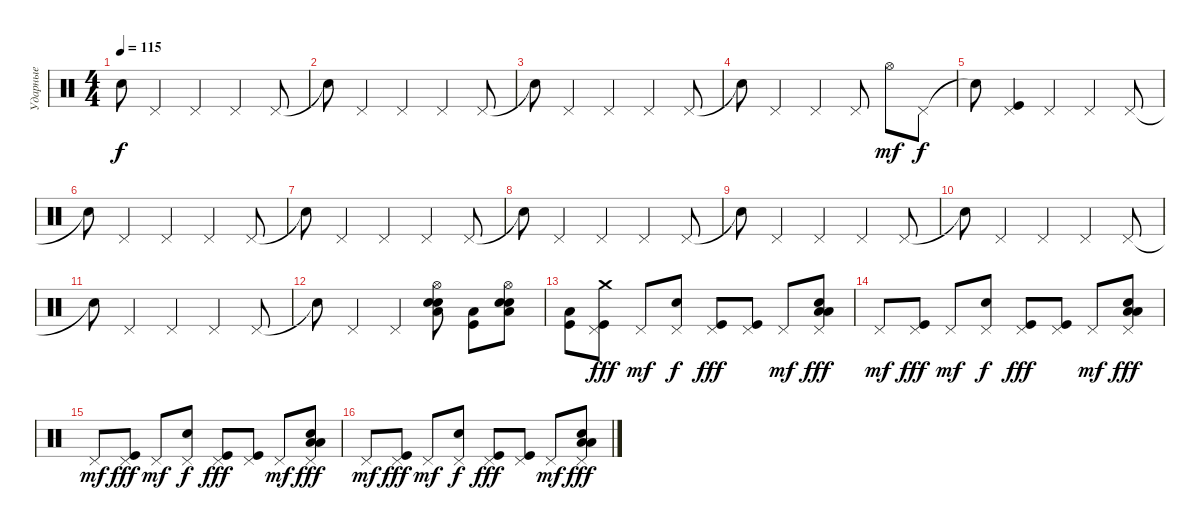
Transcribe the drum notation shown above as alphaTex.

\track ("Ударные" "Ударные") {instrument percussion}
\staff {score}
\articulation defaults
\ts (4 4)
\tempo 115
\clef neutral
\ks c "Snare (hit)"{t}.8{dy f} "Pedal Hi-Hat (hit)".4 "Pedal Hi-Hat (hit)".4 "Pedal Hi-Hat (hit)".4 "Pedal Hi-Hat (hit)".8
|
"Snare (hit)"{t}.8 "Pedal Hi-Hat (hit)".4 "Pedal Hi-Hat (hit)".4 "Pedal Hi-Hat (hit)".4 "Pedal Hi-Hat (hit)".8 |
"Snare (hit)"{t}.8 "Pedal Hi-Hat (hit)".4 "Pedal Hi-Hat (hit)".4 "Pedal Hi-Hat (hit)".4 "Pedal Hi-Hat (hit)".8 |
"Snare (hit)"{t}.8 "Pedal Hi-Hat (hit)".4 "Pedal Hi-Hat (hit)".4 "Pedal Hi-Hat (hit)".8 "Hi-Hat (open)".8{dy mf} "Pedal Hi-Hat (hit)".8{dy f} |
"Snare (hit)"{t}.8 ("Pedal Hi-Hat (hit)" "Kick (hit)").4 "Pedal Hi-Hat (hit)".4 "Pedal Hi-Hat (hit)".4 "Pedal Hi-Hat (hit)".8 |
"Snare (hit)"{t}.8 "Pedal Hi-Hat (hit)".4 "Pedal Hi-Hat (hit)".4 "Pedal Hi-Hat (hit)".4 "Pedal Hi-Hat (hit)".8 |
"Snare (hit)"{t}.8 "Pedal Hi-Hat (hit)".4 "Pedal Hi-Hat (hit)".4 "Pedal Hi-Hat (hit)".4 "Pedal Hi-Hat (hit)".8 |
"Snare (hit)"{t}.8 "Pedal Hi-Hat (hit)".4 "Pedal Hi-Hat (hit)".4 "Pedal Hi-Hat (hit)".4 "Pedal Hi-Hat (hit)".8 |
"Snare (hit)"{t}.8 "Pedal Hi-Hat (hit)".4 "Pedal Hi-Hat (hit)".4 "Pedal Hi-Hat (hit)".4 "Pedal Hi-Hat (hit)".8 |
"Snare (hit)"{t}.8 "Pedal Hi-Hat (hit)".4 "Pedal Hi-Hat (hit)".4 "Pedal Hi-Hat (hit)".4 "Pedal Hi-Hat (hit)".8 |
"Snare (hit)"{t}.8 "Pedal Hi-Hat (hit)".4 "Pedal Hi-Hat (hit)".4 "Pedal Hi-Hat (hit)".4 "Pedal Hi-Hat (hit)".8 |
"Snare (hit)"{t}.8 "Pedal Hi-Hat (hit)".4 "Pedal Hi-Hat (hit)".4 ("Electric Snare (hit)" "Hi-Hat (open)" "Electric Snare (hit)" "Low Tom (hit)").8 ("Kick (hit)" "Low Tom (hit)").8 ("Electric Snare (hit)" "Hi-Hat (open)" "Electric Snare (hit)" "Low Tom (hit)").8 |
("Kick (hit)" "Low Tom (hit)").8 ("Pedal Hi-Hat (hit)" "Kick (hit)" "Crash medium (hit)").8{dy fff} "Pedal Hi-Hat (hit)".8{dy mf} ("Pedal Hi-Hat (hit)" "Electric Snare (hit)").8{dy f} ("Pedal Hi-Hat (hit)" "Kick (hit)").8{dy fff} ("Pedal Hi-Hat (hit)" "Kick (hit)").8 "Pedal Hi-Hat (hit)".8{dy mf} ("Pedal Hi-Hat (hit)" "Low Tom (hit)" "Low Tom (hit)" "Electric Snare (hit)").8{dy fff} |
"Pedal Hi-Hat (hit)".8{dy mf} ("Pedal Hi-Hat (hit)" "Kick (hit)").8{dy fff} "Pedal Hi-Hat (hit)".8{dy mf} ("Pedal Hi-Hat (hit)" "Electric Snare (hit)").8{dy f} ("Pedal Hi-Hat (hit)" "Kick (hit)").8{dy fff} ("Pedal Hi-Hat (hit)" "Kick (hit)").8 "Pedal Hi-Hat (hit)".8{dy mf} ("Pedal Hi-Hat (hit)" "Low Tom (hit)" "Low Tom (hit)" "Electric Snare (hit)").8{dy fff} |
"Pedal Hi-Hat (hit)".8{dy mf} ("Pedal Hi-Hat (hit)" "Kick (hit)").8{dy fff} "Pedal Hi-Hat (hit)".8{dy mf} ("Pedal Hi-Hat (hit)" "Electric Snare (hit)").8{dy f} ("Pedal Hi-Hat (hit)" "Kick (hit)").8{dy fff} ("Pedal Hi-Hat (hit)" "Kick (hit)").8 "Pedal Hi-Hat (hit)".8{dy mf} ("Pedal Hi-Hat (hit)" "Low Tom (hit)" "Low Tom (hit)" "Electric Snare (hit)").8{dy fff} |
"Pedal Hi-Hat (hit)".8{dy mf} ("Pedal Hi-Hat (hit)" "Kick (hit)").8{dy fff} "Pedal Hi-Hat (hit)".8{dy mf} ("Pedal Hi-Hat (hit)" "Electric Snare (hit)").8{dy f} ("Pedal Hi-Hat (hit)" "Kick (hit)").8{dy fff} ("Pedal Hi-Hat (hit)" "Kick (hit)").8 "Pedal Hi-Hat (hit)".8{dy mf} ("Pedal Hi-Hat (hit)" "Low Tom (hit)" "Low Tom (hit)" "Electric Snare (hit)").8{dy fff}
